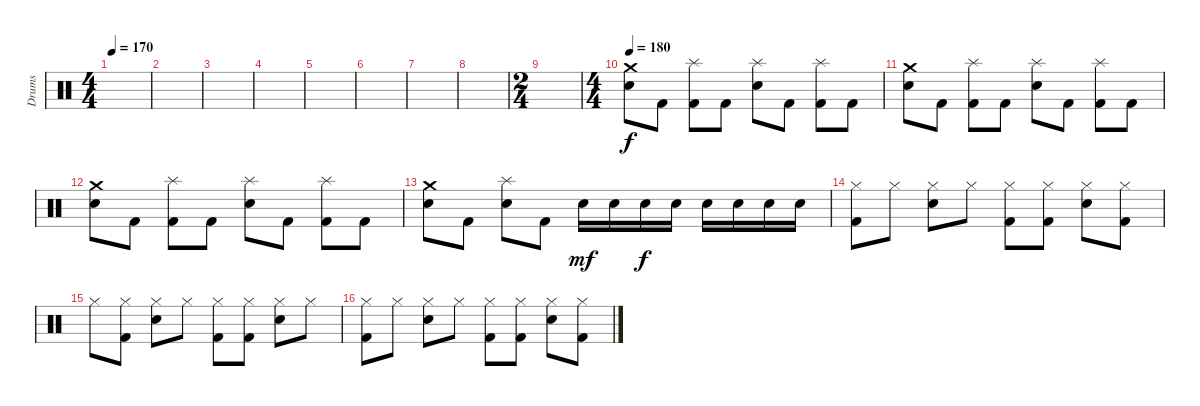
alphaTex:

\track ("Drums" "Drums") {instrument percussion}
\staff {score}
\articulation defaults
\ts (4 4)
\tempo 170
\clef neutral
\ks c
|
|
|
|
|
|
|
|
\ts (2 4)
|
\ts (4 4)
\tempo 180
("Crash medium (hit)" "Electric Snare (hit)").8 "Kick (hit) 2".8 ("Splash (hit)" "Kick (hit) 2").8 "Kick (hit) 2".8 ("Splash (hit)" "Electric Snare (hit)").8 "Kick (hit) 2".8 ("Splash (hit)" "Kick (hit) 2").8 "Kick (hit) 2".8 |
("Crash medium (hit)" "Electric Snare (hit)").8 "Kick (hit) 2".8 ("Splash (hit)" "Kick (hit) 2").8 "Kick (hit) 2".8 ("Splash (hit)" "Electric Snare (hit)").8 "Kick (hit) 2".8 ("Splash (hit)" "Kick (hit) 2").8 "Kick (hit) 2".8 |
("Crash medium (hit)" "Electric Snare (hit)").8 "Kick (hit) 2".8 ("Splash (hit)" "Kick (hit) 2").8 "Kick (hit) 2".8 ("Splash (hit)" "Electric Snare (hit)").8 "Kick (hit) 2".8 ("Splash (hit)" "Kick (hit) 2").8 "Kick (hit) 2".8 |
("Crash medium (hit)" "Electric Snare (hit)").8 "Kick (hit) 2".8 ("Splash (hit)" "Electric Snare (hit)").8 "Kick (hit) 2".8 "Electric Snare (hit)".16{dy mf} "Electric Snare (hit)".16 "Electric Snare (hit)".16{dy f} "Electric Snare (hit)".16 "Electric Snare (hit)".16 "Electric Snare (hit)".16 "Electric Snare (hit)".16 "Electric Snare (hit)".16 |
("Hi-Hat (closed)" "Kick (hit) 2").8 "Hi-Hat (closed)".8 ("Hi-Hat (closed)" "Electric Snare (hit)").8 "Hi-Hat (closed)".8 ("Hi-Hat (closed)" "Kick (hit) 2").8 ("Hi-Hat (closed)" "Kick (hit) 2").8 ("Hi-Hat (closed)" "Electric Snare (hit)").8 ("Hi-Hat (closed)" "Kick (hit) 2").8 |
"Hi-Hat (closed)".8 ("Hi-Hat (closed)" "Kick (hit) 2").8 ("Hi-Hat (closed)" "Electric Snare (hit)").8 "Hi-Hat (closed)".8 ("Hi-Hat (closed)" "Kick (hit) 2").8 ("Hi-Hat (closed)" "Kick (hit) 2").8 ("Hi-Hat (closed)" "Electric Snare (hit)").8 "Hi-Hat (closed)".8 |
("Hi-Hat (closed)" "Kick (hit) 2").8 "Hi-Hat (closed)".8 ("Hi-Hat (closed)" "Electric Snare (hit)").8 "Hi-Hat (closed)".8 ("Hi-Hat (closed)" "Kick (hit) 2").8 ("Hi-Hat (closed)" "Kick (hit) 2").8 ("Hi-Hat (closed)" "Electric Snare (hit)").8 ("Hi-Hat (closed)" "Kick (hit) 2").8
